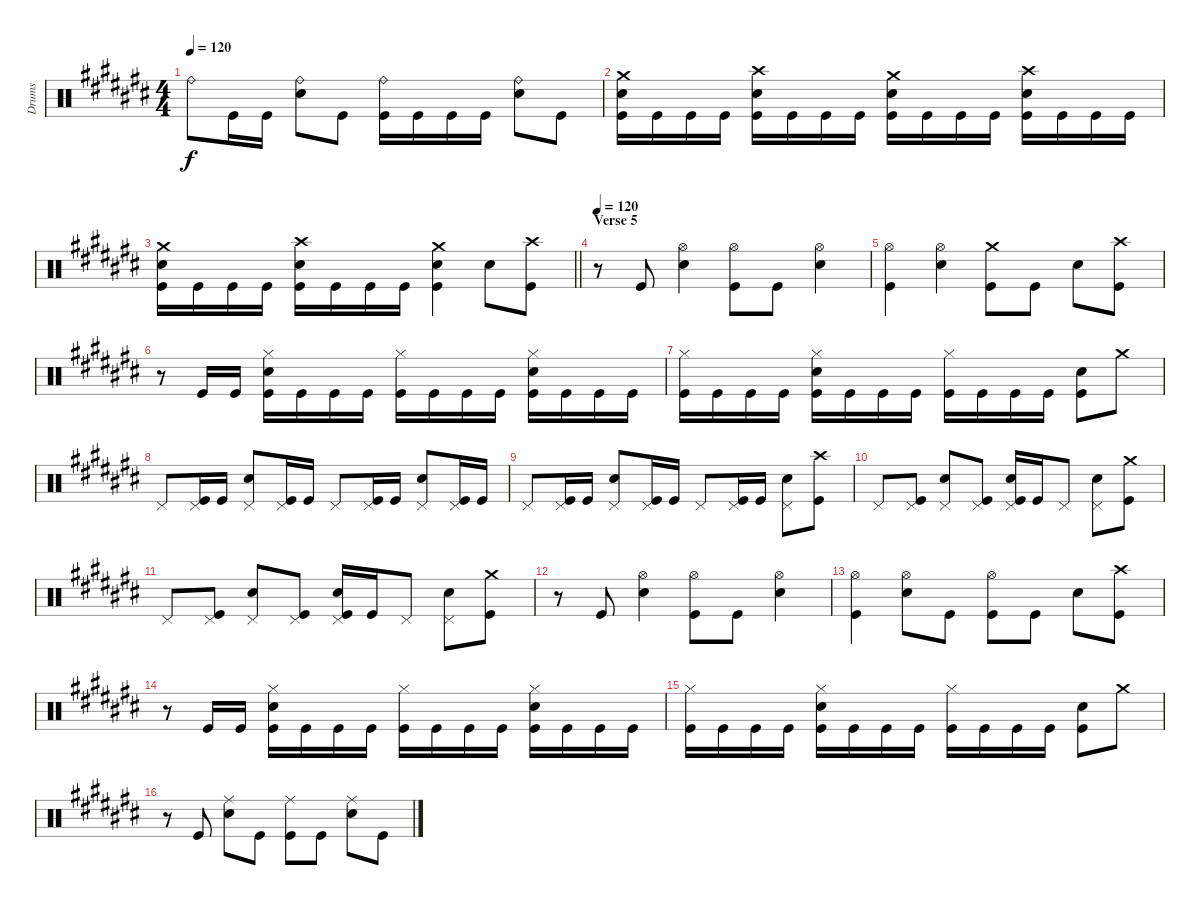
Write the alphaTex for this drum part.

\track ("Drums" "Drums") {instrument percussion}
\staff {score}
\articulation defaults
\ts (4 4)
\tempo 120
\clef neutral
\ks c# "Ride (bell)".8{dy f} "Kick (hit)".16 "Kick (hit)".16
("Ride (bell)" "Snare (hit) 2").8 "Kick (hit)".8 ("Ride (bell)" "Kick (hit)").16 "Kick (hit)".16 "Kick (hit)".16 "Kick (hit)".16 ("Ride (bell)" "Snare (hit) 2").8 "Kick (hit)".8 |
("Crash medium (hit)" "Snare (hit) 2" "Kick (hit)").16 "Kick (hit)".16 "Kick (hit)".16 "Kick (hit)".16 ("Crash high (hit)" "Snare (hit) 2" "Kick (hit)").16 "Kick (hit)".16 "Kick (hit)".16 "Kick (hit)".16 ("Crash medium (hit)" "Snare (hit) 2" "Kick (hit)").16 "Kick (hit)".16 "Kick (hit)".16 "Kick (hit)".16 ("Crash high (hit)" "Snare (hit) 2" "Kick (hit)").16 "Kick (hit)".16 "Kick (hit)".16 "Kick (hit)".16 |
\barLineRight lightlight
("Crash medium (hit)" "Snare (hit) 2" "Kick (hit)").16 "Kick (hit)".16 "Kick (hit)".16 "Kick (hit)".16 ("Crash high (hit)" "Snare (hit) 2" "Kick (hit)").16 "Kick (hit)".16 "Kick (hit)".16 "Kick (hit)".16 ("Crash medium (hit)" "Snare (hit) 2" "Kick (hit)").4 "Snare (hit) 2".8 ("Crash high (hit)" "Kick (hit)").8 |
\section ("" "Verse 5")
\tempo 120
r.8 "Kick (hit)".8 ("Hi-Hat (open)" "Snare (hit) 2").4 ("Hi-Hat (open)" "Kick (hit)").8 "Kick (hit)".8 ("Hi-Hat (open)" "Snare (hit) 2").4 |
("Hi-Hat (open)" "Kick (hit)").4 ("Hi-Hat (open)" "Snare (hit) 2").4 ("Crash medium (hit)" "Kick (hit)").8 "Kick (hit)".8 "Snare (hit) 2".8 ("Crash high (hit)" "Kick (hit)").8 |
r.8 "Kick (hit)".16 "Kick (hit)".16 ("Hi-Hat (closed)" "Snare (hit) 2" "Kick (hit)").16 "Kick (hit)".16 "Kick (hit)".16 "Kick (hit)".16 ("Hi-Hat (closed)" "Kick (hit)").16 "Kick (hit)".16 "Kick (hit)".16 "Kick (hit)".16 ("Hi-Hat (closed)" "Snare (hit) 2" "Kick (hit)").16 "Kick (hit)".16 "Kick (hit)".16 "Kick (hit)".16 |
("Hi-Hat (closed)" "Kick (hit)").16 "Kick (hit)".16 "Kick (hit)".16 "Kick (hit)".16 ("Hi-Hat (closed)" "Snare (hit) 2" "Kick (hit)").16 "Kick (hit)".16 "Kick (hit)".16 "Kick (hit)".16 ("Hi-Hat (closed)" "Kick (hit)").16 "Kick (hit)".16 "Kick (hit)".16 "Kick (hit)".16 ("Snare (hit) 2" "Kick (hit)").8 "Crash medium (hit)".8 |
"Pedal Hi-Hat (hit)".8 ("Pedal Hi-Hat (hit)" "Kick (hit)").16 "Kick (hit)".16 ("Pedal Hi-Hat (hit)" "Snare (hit) 2").8 ("Pedal Hi-Hat (hit)" "Kick (hit)").16 "Kick (hit)".16 "Pedal Hi-Hat (hit)".8 ("Pedal Hi-Hat (hit)" "Kick (hit)").16 "Kick (hit)".16 ("Pedal Hi-Hat (hit)" "Snare (hit) 2").8 ("Pedal Hi-Hat (hit)" "Kick (hit)").16 "Kick (hit)".16 |
"Pedal Hi-Hat (hit)".8 ("Pedal Hi-Hat (hit)" "Kick (hit)").16 "Kick (hit)".16 ("Pedal Hi-Hat (hit)" "Snare (hit) 2").8 ("Pedal Hi-Hat (hit)" "Kick (hit)").16 "Kick (hit)".16 "Pedal Hi-Hat (hit)".8 ("Pedal Hi-Hat (hit)" "Kick (hit)").16 "Kick (hit)".16 ("Pedal Hi-Hat (hit)" "Snare (hit) 2").8 ("Crash high (hit)" "Kick (hit)").8 |
"Pedal Hi-Hat (hit)".8 ("Pedal Hi-Hat (hit)" "Kick (hit)").8 ("Pedal Hi-Hat (hit)" "Snare (hit) 2").8 ("Pedal Hi-Hat (hit)" "Kick (hit)").8 ("Pedal Hi-Hat (hit)" "Snare (hit) 2" "Kick (hit)").16 "Kick (hit)".16 "Pedal Hi-Hat (hit)".8 ("Pedal Hi-Hat (hit)" "Snare (hit) 2").8 ("Crash medium (hit)" "Kick (hit)").8 |
"Pedal Hi-Hat (hit)".8 ("Pedal Hi-Hat (hit)" "Kick (hit)").8 ("Pedal Hi-Hat (hit)" "Snare (hit) 2").8 ("Pedal Hi-Hat (hit)" "Kick (hit)").8 ("Pedal Hi-Hat (hit)" "Snare (hit) 2" "Kick (hit)").16 "Kick (hit)".16 "Pedal Hi-Hat (hit)".8 ("Pedal Hi-Hat (hit)" "Snare (hit) 2").8 ("Crash medium (hit)" "Kick (hit)").8 |
r.8 "Kick (hit)".8 ("Hi-Hat (open)" "Snare (hit) 2").4 ("Hi-Hat (open)" "Kick (hit)").8 "Kick (hit)".8 ("Hi-Hat (open)" "Snare (hit) 2").4 |
("Hi-Hat (open)" "Kick (hit)").4 ("Hi-Hat (open)" "Snare (hit) 2").8 "Kick (hit)".8 ("Hi-Hat (open)" "Kick (hit)").8 "Kick (hit)".8 "Snare (hit) 2".8 ("Crash high (hit)" "Kick (hit)").8 |
r.8 "Kick (hit)".16 "Kick (hit)".16 ("Hi-Hat (closed)" "Snare (hit) 2" "Kick (hit)").16 "Kick (hit)".16 "Kick (hit)".16 "Kick (hit)".16 ("Hi-Hat (closed)" "Kick (hit)").16 "Kick (hit)".16 "Kick (hit)".16 "Kick (hit)".16 ("Hi-Hat (closed)" "Snare (hit) 2" "Kick (hit)").16 "Kick (hit)".16 "Kick (hit)".16 "Kick (hit)".16 |
("Hi-Hat (closed)" "Kick (hit)").16 "Kick (hit)".16 "Kick (hit)".16 "Kick (hit)".16 ("Hi-Hat (closed)" "Snare (hit) 2" "Kick (hit)").16 "Kick (hit)".16 "Kick (hit)".16 "Kick (hit)".16 ("Hi-Hat (closed)" "Kick (hit)").16 "Kick (hit)".16 "Kick (hit)".16 "Kick (hit)".16 ("Snare (hit) 2" "Kick (hit)").8 "Crash medium (hit)".8 |
r.8 "Kick (hit)".8 ("Ride (middle)" "Snare (hit) 2").8 "Kick (hit)".8 ("Ride (middle)" "Kick (hit)").8 "Kick (hit)".8 ("Ride (middle)" "Snare (hit) 2").8 "Kick (hit)".8
